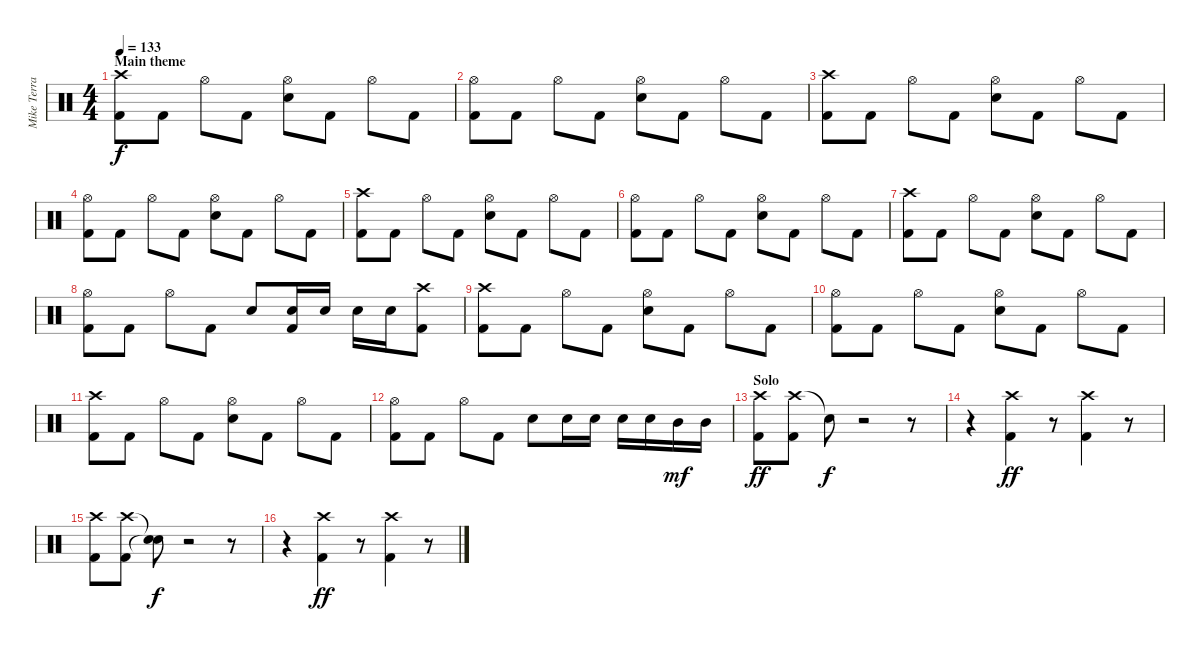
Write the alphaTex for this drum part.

\track ("Mike Terrana" "Mike Terra") {instrument percussion}
\staff {score}
\articulation defaults
\ts (4 4)
\section ("" "Main theme")
\tempo 133
\clef neutral
\ks c
("Crash high (hit)" "Kick (hit) 2").8{dy f} "Kick (hit) 2".8 "Hi-Hat (open)".8 "Kick (hit) 2".8 ("Hi-Hat (open)" "Snare (hit) 2").8 "Kick (hit) 2".8 "Hi-Hat (open)".8 "Kick (hit) 2".8 |
("Hi-Hat (open)" "Kick (hit) 2").8 "Kick (hit) 2".8 "Hi-Hat (open)".8 "Kick (hit) 2".8 ("Hi-Hat (open)" "Snare (hit) 2").8 "Kick (hit) 2".8 "Hi-Hat (open)".8 "Kick (hit) 2".8 |
("Crash high (hit)" "Kick (hit) 2").8 "Kick (hit) 2".8 "Hi-Hat (open)".8 "Kick (hit) 2".8 ("Hi-Hat (open)" "Snare (hit) 2").8 "Kick (hit) 2".8 "Hi-Hat (open)".8 "Kick (hit) 2".8 |
("Hi-Hat (open)" "Kick (hit) 2").8 "Kick (hit) 2".8 "Hi-Hat (open)".8 "Kick (hit) 2".8 ("Hi-Hat (open)" "Snare (hit) 2").8 "Kick (hit) 2".8 "Hi-Hat (open)".8 "Kick (hit) 2".8 |
("Crash high (hit)" "Kick (hit) 2").8 "Kick (hit) 2".8 "Hi-Hat (open)".8 "Kick (hit) 2".8 ("Hi-Hat (open)" "Snare (hit) 2").8 "Kick (hit) 2".8 "Hi-Hat (open)".8 "Kick (hit) 2".8 |
("Hi-Hat (open)" "Kick (hit) 2").8 "Kick (hit) 2".8 "Hi-Hat (open)".8 "Kick (hit) 2".8 ("Hi-Hat (open)" "Snare (hit) 2").8 "Kick (hit) 2".8 "Hi-Hat (open)".8 "Kick (hit) 2".8 |
("Crash high (hit)" "Kick (hit) 2").8 "Kick (hit) 2".8 "Hi-Hat (open)".8 "Kick (hit) 2".8 ("Hi-Hat (open)" "Snare (hit) 2").8 "Kick (hit) 2".8 "Hi-Hat (open)".8 "Kick (hit) 2".8 |
("Hi-Hat (open)" "Kick (hit) 2").8 "Kick (hit) 2".8 "Hi-Hat (open)".8 "Kick (hit) 2".8 "Snare (hit) 2".8 ("Snare (hit) 2" "Kick (hit) 2").16 "Snare (hit) 2".16 "Snare (hit) 2".16 "Snare (hit) 2".16 ("Crash high (hit)" "Kick (hit) 2").8 |
("Crash high (hit)" "Kick (hit) 2").8 "Kick (hit) 2".8 "Hi-Hat (open)".8 "Kick (hit) 2".8 ("Hi-Hat (open)" "Snare (hit) 2").8 "Kick (hit) 2".8 "Hi-Hat (open)".8 "Kick (hit) 2".8 |
("Hi-Hat (open)" "Kick (hit) 2").8 "Kick (hit) 2".8 "Hi-Hat (open)".8 "Kick (hit) 2".8 ("Hi-Hat (open)" "Snare (hit) 2").8 "Kick (hit) 2".8 "Hi-Hat (open)".8 "Kick (hit) 2".8 |
("Crash high (hit)" "Kick (hit) 2").8 "Kick (hit) 2".8 "Hi-Hat (open)".8 "Kick (hit) 2".8 ("Hi-Hat (open)" "Snare (hit) 2").8 "Kick (hit) 2".8 "Hi-Hat (open)".8 "Kick (hit) 2".8 |
("Hi-Hat (open)" "Kick (hit) 2").8 "Kick (hit) 2".8 "Hi-Hat (open)".8 "Kick (hit) 2".8 "Snare (hit) 2".8 "Snare (hit) 2".16 "Snare (hit) 2".16 "Snare (hit) 2".16 "Snare (hit) 2".16 "Mid Tom (hit)".16{dy mf} "Mid Tom (hit)".16 |
\section ("" "Solo")
("Crash high (hit)" "Kick (hit) 2").8{dy ff} ("Crash high (hit)" "Kick (hit) 2").8 "Snare (hit)"{t}.8{dy f} r.2 r.8 |
r.4 ("Crash high (hit)" "Kick (hit) 2").4{dy ff} r.8 ("Crash high (hit)" "Kick (hit) 2").4 r.8 |
("Crash high (hit)" "Kick (hit) 2").8 ("Crash high (hit)" "Kick (hit) 2").8 ("Snare (hit)"{t} "Snare (hit)"{t}).8{dy f} r.2 r.8 |
r.4 ("Crash high (hit)" "Kick (hit) 2").4{dy ff} r.8 ("Crash high (hit)" "Kick (hit) 2").4 r.8
